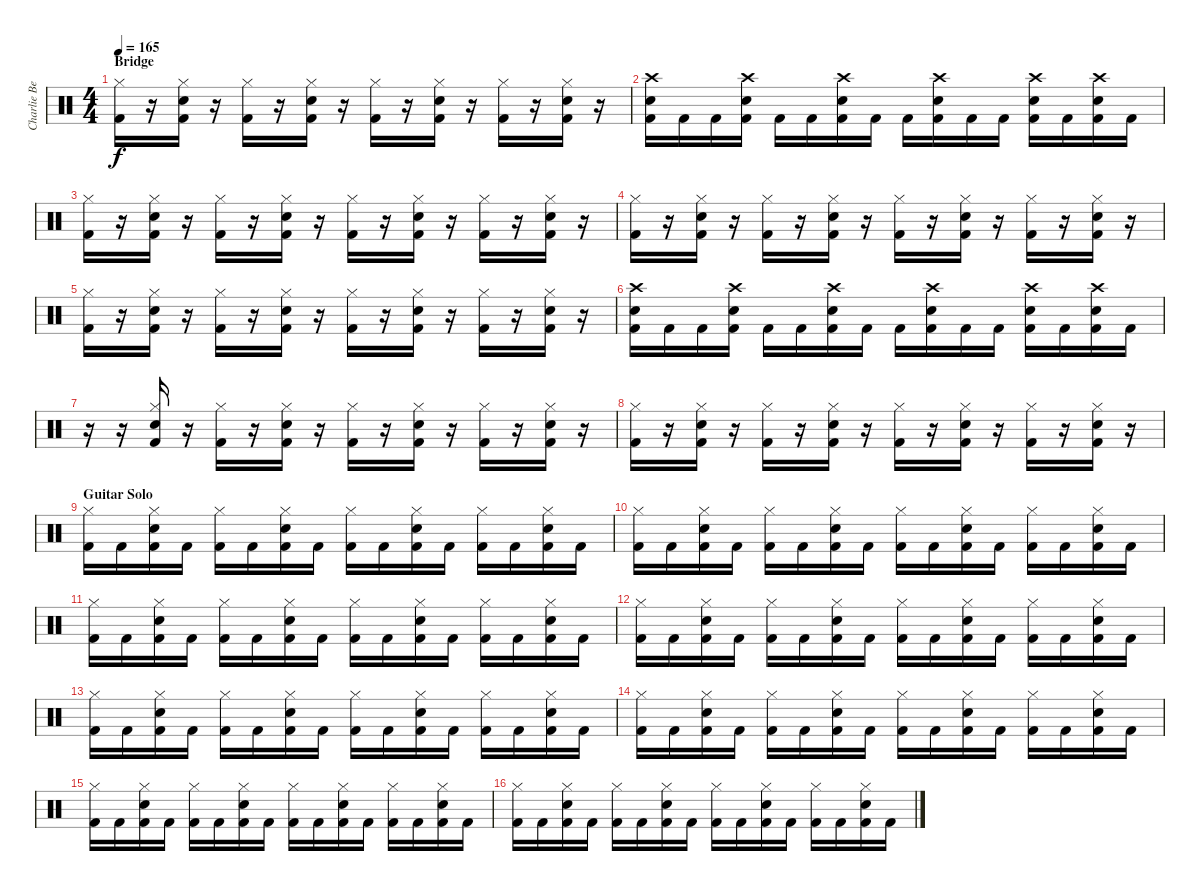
\track ("Charlie Benante" "Charlie Be") {instrument percussion}
\staff {score}
\articulation defaults
\ts (4 4)
\section ("" "Bridge")
\tempo 165
\clef neutral
\ks c
("Kick (hit) 2" "Hi-Hat (closed)").16{dy f} r.16 ("Kick (hit) 2" "Hi-Hat (closed)" "Electric Snare (hit)").16 r.16 ("Kick (hit) 2" "Hi-Hat (closed)").16 r.16 ("Kick (hit) 2" "Hi-Hat (closed)" "Electric Snare (hit)").16 r.16 ("Kick (hit) 2" "Hi-Hat (closed)").16 r.16 ("Kick (hit) 2" "Hi-Hat (closed)" "Electric Snare (hit)").16 r.16 ("Kick (hit) 2" "Hi-Hat (closed)").16 r.16 ("Kick (hit) 2" "Hi-Hat (closed)" "Electric Snare (hit)").16 r.16 |
("Kick (hit) 2" "Electric Snare (hit)" "Crash high (hit)").16 "Kick (hit) 2".16 "Kick (hit) 2".16 ("Kick (hit) 2" "Crash high (hit)" "Electric Snare (hit)").16 "Kick (hit) 2".16 "Kick (hit) 2".16 ("Kick (hit) 2" "Electric Snare (hit)" "Crash high (hit)").16 "Kick (hit) 2".16 "Kick (hit) 2".16 ("Kick (hit) 2" "Electric Snare (hit)" "Crash high (hit)").16 "Kick (hit) 2".16 "Kick (hit) 2".16 ("Kick (hit) 2" "Crash high (hit)" "Electric Snare (hit)").16 "Kick (hit) 2".16 ("Kick (hit) 2" "Crash high (hit)" "Electric Snare (hit)").16 "Kick (hit) 2".16 |
("Kick (hit) 2" "Hi-Hat (closed)").16 r.16 ("Kick (hit) 2" "Hi-Hat (closed)" "Electric Snare (hit)").16 r.16 ("Kick (hit) 2" "Hi-Hat (closed)").16 r.16 ("Kick (hit) 2" "Hi-Hat (closed)" "Electric Snare (hit)").16 r.16 ("Kick (hit) 2" "Hi-Hat (closed)").16 r.16 ("Kick (hit) 2" "Hi-Hat (closed)" "Electric Snare (hit)").16 r.16 ("Kick (hit) 2" "Hi-Hat (closed)").16 r.16 ("Kick (hit) 2" "Hi-Hat (closed)" "Electric Snare (hit)").16 r.16 |
("Kick (hit) 2" "Hi-Hat (closed)").16 r.16 ("Kick (hit) 2" "Hi-Hat (closed)" "Electric Snare (hit)").16 r.16 ("Kick (hit) 2" "Hi-Hat (closed)").16 r.16 ("Kick (hit) 2" "Hi-Hat (closed)" "Electric Snare (hit)").16 r.16 ("Kick (hit) 2" "Hi-Hat (closed)").16 r.16 ("Kick (hit) 2" "Hi-Hat (closed)" "Electric Snare (hit)").16 r.16 ("Kick (hit) 2" "Hi-Hat (closed)").16 r.16 ("Kick (hit) 2" "Hi-Hat (closed)" "Electric Snare (hit)").16 r.16 |
("Kick (hit) 2" "Hi-Hat (closed)").16 r.16 ("Kick (hit) 2" "Hi-Hat (closed)" "Electric Snare (hit)").16 r.16 ("Kick (hit) 2" "Hi-Hat (closed)").16 r.16 ("Kick (hit) 2" "Hi-Hat (closed)" "Electric Snare (hit)").16 r.16 ("Kick (hit) 2" "Hi-Hat (closed)").16 r.16 ("Kick (hit) 2" "Hi-Hat (closed)" "Electric Snare (hit)").16 r.16 ("Kick (hit) 2" "Hi-Hat (closed)").16 r.16 ("Kick (hit) 2" "Hi-Hat (closed)" "Electric Snare (hit)").16 r.16 |
("Kick (hit) 2" "Electric Snare (hit)" "Crash high (hit)").16 "Kick (hit) 2".16 "Kick (hit) 2".16 ("Kick (hit) 2" "Crash high (hit)" "Electric Snare (hit)").16 "Kick (hit) 2".16 "Kick (hit) 2".16 ("Kick (hit) 2" "Electric Snare (hit)" "Crash high (hit)").16 "Kick (hit) 2".16 "Kick (hit) 2".16 ("Kick (hit) 2" "Electric Snare (hit)" "Crash high (hit)").16 "Kick (hit) 2".16 "Kick (hit) 2".16 ("Kick (hit) 2" "Crash high (hit)" "Electric Snare (hit)").16 "Kick (hit) 2".16 ("Kick (hit) 2" "Crash high (hit)" "Electric Snare (hit)").16 "Kick (hit) 2".16 |
r.16 r.16 ("Kick (hit) 2" "Hi-Hat (closed)" "Electric Snare (hit)").16 r.16 ("Kick (hit) 2" "Hi-Hat (closed)").16 r.16 ("Kick (hit) 2" "Hi-Hat (closed)" "Electric Snare (hit)").16 r.16 ("Kick (hit) 2" "Hi-Hat (closed)").16 r.16 ("Kick (hit) 2" "Hi-Hat (closed)" "Electric Snare (hit)").16 r.16 ("Kick (hit) 2" "Hi-Hat (closed)").16 r.16 ("Kick (hit) 2" "Hi-Hat (closed)" "Electric Snare (hit)").16 r.16 |
("Kick (hit) 2" "Hi-Hat (closed)").16 r.16 ("Kick (hit) 2" "Hi-Hat (closed)" "Electric Snare (hit)").16 r.16 ("Kick (hit) 2" "Hi-Hat (closed)").16 r.16 ("Kick (hit) 2" "Hi-Hat (closed)" "Electric Snare (hit)").16 r.16 ("Kick (hit) 2" "Hi-Hat (closed)").16 r.16 ("Kick (hit) 2" "Hi-Hat (closed)" "Electric Snare (hit)").16 r.16 ("Kick (hit) 2" "Hi-Hat (closed)").16 r.16 ("Kick (hit) 2" "Hi-Hat (closed)" "Electric Snare (hit)").16 r.16 |
\section ("" "Guitar Solo")
("Kick (hit) 2" "Hi-Hat (closed)").16 "Kick (hit) 2".16 ("Kick (hit) 2" "Hi-Hat (closed)" "Electric Snare (hit)").16 "Kick (hit) 2".16 ("Kick (hit) 2" "Hi-Hat (closed)").16 "Kick (hit) 2".16 ("Kick (hit) 2" "Hi-Hat (closed)" "Electric Snare (hit)").16 "Kick (hit) 2".16 ("Kick (hit) 2" "Hi-Hat (closed)").16 "Kick (hit) 2".16 ("Kick (hit) 2" "Hi-Hat (closed)" "Electric Snare (hit)").16 "Kick (hit) 2".16 ("Kick (hit) 2" "Hi-Hat (closed)").16 "Kick (hit) 2".16 ("Kick (hit) 2" "Hi-Hat (closed)" "Electric Snare (hit)").16 "Kick (hit) 2".16 |
("Kick (hit) 2" "Hi-Hat (closed)").16 "Kick (hit) 2".16 ("Kick (hit) 2" "Hi-Hat (closed)" "Electric Snare (hit)").16 "Kick (hit) 2".16 ("Kick (hit) 2" "Hi-Hat (closed)").16 "Kick (hit) 2".16 ("Kick (hit) 2" "Hi-Hat (closed)" "Electric Snare (hit)").16 "Kick (hit) 2".16 ("Kick (hit) 2" "Hi-Hat (closed)").16 "Kick (hit) 2".16 ("Kick (hit) 2" "Hi-Hat (closed)" "Electric Snare (hit)").16 "Kick (hit) 2".16 ("Kick (hit) 2" "Hi-Hat (closed)").16 "Kick (hit) 2".16 ("Kick (hit) 2" "Hi-Hat (closed)" "Electric Snare (hit)").16 "Kick (hit) 2".16 |
("Kick (hit) 2" "Hi-Hat (closed)").16 "Kick (hit) 2".16 ("Kick (hit) 2" "Hi-Hat (closed)" "Electric Snare (hit)").16 "Kick (hit) 2".16 ("Kick (hit) 2" "Hi-Hat (closed)").16 "Kick (hit) 2".16 ("Kick (hit) 2" "Hi-Hat (closed)" "Electric Snare (hit)").16 "Kick (hit) 2".16 ("Kick (hit) 2" "Hi-Hat (closed)").16 "Kick (hit) 2".16 ("Kick (hit) 2" "Hi-Hat (closed)" "Electric Snare (hit)").16 "Kick (hit) 2".16 ("Kick (hit) 2" "Hi-Hat (closed)").16 "Kick (hit) 2".16 ("Kick (hit) 2" "Hi-Hat (closed)" "Electric Snare (hit)").16 "Kick (hit) 2".16 |
("Kick (hit) 2" "Hi-Hat (closed)").16 "Kick (hit) 2".16 ("Kick (hit) 2" "Hi-Hat (closed)" "Electric Snare (hit)").16 "Kick (hit) 2".16 ("Kick (hit) 2" "Hi-Hat (closed)").16 "Kick (hit) 2".16 ("Kick (hit) 2" "Hi-Hat (closed)" "Electric Snare (hit)").16 "Kick (hit) 2".16 ("Kick (hit) 2" "Hi-Hat (closed)").16 "Kick (hit) 2".16 ("Kick (hit) 2" "Hi-Hat (closed)" "Electric Snare (hit)").16 "Kick (hit) 2".16 ("Kick (hit) 2" "Hi-Hat (closed)").16 "Kick (hit) 2".16 ("Kick (hit) 2" "Hi-Hat (closed)" "Electric Snare (hit)").16 "Kick (hit) 2".16 |
("Kick (hit) 2" "Hi-Hat (closed)").16 "Kick (hit) 2".16 ("Kick (hit) 2" "Hi-Hat (closed)" "Electric Snare (hit)").16 "Kick (hit) 2".16 ("Kick (hit) 2" "Hi-Hat (closed)").16 "Kick (hit) 2".16 ("Kick (hit) 2" "Hi-Hat (closed)" "Electric Snare (hit)").16 "Kick (hit) 2".16 ("Kick (hit) 2" "Hi-Hat (closed)").16 "Kick (hit) 2".16 ("Kick (hit) 2" "Hi-Hat (closed)" "Electric Snare (hit)").16 "Kick (hit) 2".16 ("Kick (hit) 2" "Hi-Hat (closed)").16 "Kick (hit) 2".16 ("Kick (hit) 2" "Hi-Hat (closed)" "Electric Snare (hit)").16 "Kick (hit) 2".16 |
("Kick (hit) 2" "Hi-Hat (closed)").16 "Kick (hit) 2".16 ("Kick (hit) 2" "Hi-Hat (closed)" "Electric Snare (hit)").16 "Kick (hit) 2".16 ("Kick (hit) 2" "Hi-Hat (closed)").16 "Kick (hit) 2".16 ("Kick (hit) 2" "Hi-Hat (closed)" "Electric Snare (hit)").16 "Kick (hit) 2".16 ("Kick (hit) 2" "Hi-Hat (closed)").16 "Kick (hit) 2".16 ("Kick (hit) 2" "Hi-Hat (closed)" "Electric Snare (hit)").16 "Kick (hit) 2".16 ("Kick (hit) 2" "Hi-Hat (closed)").16 "Kick (hit) 2".16 ("Kick (hit) 2" "Hi-Hat (closed)" "Electric Snare (hit)").16 "Kick (hit) 2".16 |
("Kick (hit) 2" "Hi-Hat (closed)").16 "Kick (hit) 2".16 ("Kick (hit) 2" "Hi-Hat (closed)" "Electric Snare (hit)").16 "Kick (hit) 2".16 ("Kick (hit) 2" "Hi-Hat (closed)").16 "Kick (hit) 2".16 ("Kick (hit) 2" "Hi-Hat (closed)" "Electric Snare (hit)").16 "Kick (hit) 2".16 ("Kick (hit) 2" "Hi-Hat (closed)").16 "Kick (hit) 2".16 ("Kick (hit) 2" "Hi-Hat (closed)" "Electric Snare (hit)").16 "Kick (hit) 2".16 ("Kick (hit) 2" "Hi-Hat (closed)").16 "Kick (hit) 2".16 ("Kick (hit) 2" "Hi-Hat (closed)" "Electric Snare (hit)").16 "Kick (hit) 2".16 |
("Kick (hit) 2" "Hi-Hat (closed)").16 "Kick (hit) 2".16 ("Kick (hit) 2" "Hi-Hat (closed)" "Electric Snare (hit)").16 "Kick (hit) 2".16 ("Kick (hit) 2" "Hi-Hat (closed)").16 "Kick (hit) 2".16 ("Kick (hit) 2" "Hi-Hat (closed)" "Electric Snare (hit)").16 "Kick (hit) 2".16 ("Kick (hit) 2" "Hi-Hat (closed)").16 "Kick (hit) 2".16 ("Kick (hit) 2" "Hi-Hat (closed)" "Electric Snare (hit)").16 "Kick (hit) 2".16 ("Kick (hit) 2" "Hi-Hat (closed)").16 "Kick (hit) 2".16 ("Kick (hit) 2" "Hi-Hat (closed)" "Electric Snare (hit)").16 "Kick (hit) 2".16
